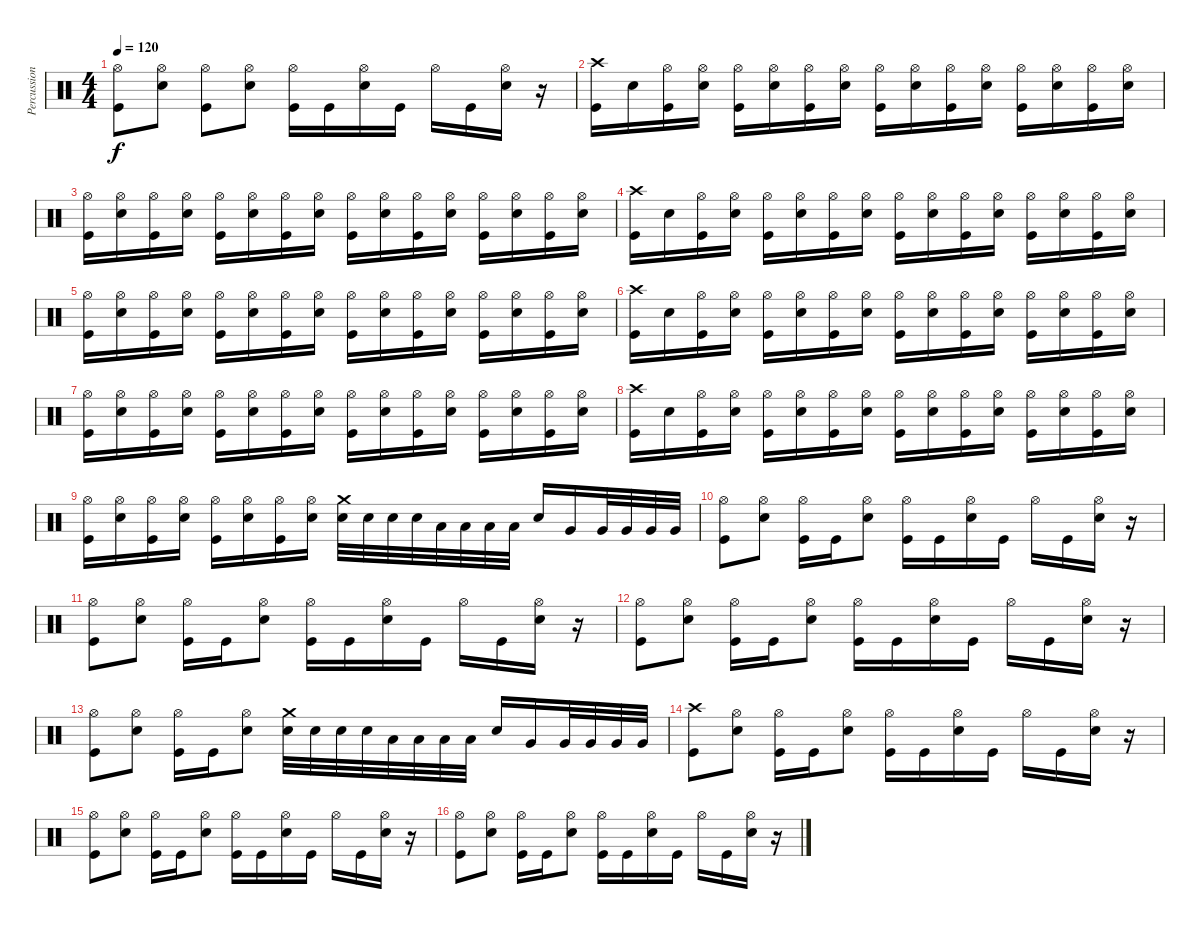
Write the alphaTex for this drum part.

\track ("Percussion" "Percussion") {instrument percussion}
\staff {score}
\articulation defaults
\ts (4 4)
\tempo 120
\clef neutral
\ks c
("Kick (hit)" "Hi-Hat (open)").8{dy f} ("Electric Snare (hit)" "Hi-Hat (open)").8 ("Kick (hit)" "Hi-Hat (open)").8 ("Electric Snare (hit)" "Hi-Hat (open)").8 ("Hi-Hat (open)" "Kick (hit)").16 "Kick (hit)".16 ("Hi-Hat (open)" "Electric Snare (hit)").16 "Kick (hit)".16 "Hi-Hat (open)".16 "Kick (hit)".16 ("Hi-Hat (open)" "Electric Snare (hit)").16 r.16 |
("Crash high (hit)" "Kick (hit)").16 "Electric Snare (hit)".16 ("Hi-Hat (open)" "Kick (hit)").16 ("Hi-Hat (open)" "Electric Snare (hit)").16 ("Hi-Hat (open)" "Kick (hit)").16 ("Hi-Hat (open)" "Electric Snare (hit)").16 ("Hi-Hat (open)" "Kick (hit)").16 ("Hi-Hat (open)" "Electric Snare (hit)").16 ("Hi-Hat (open)" "Kick (hit)").16 ("Hi-Hat (open)" "Electric Snare (hit)").16 ("Hi-Hat (open)" "Kick (hit)").16 ("Hi-Hat (open)" "Electric Snare (hit)").16 ("Hi-Hat (open)" "Kick (hit)").16 ("Hi-Hat (open)" "Electric Snare (hit)").16 ("Hi-Hat (open)" "Kick (hit)").16 ("Hi-Hat (open)" "Electric Snare (hit)").16 |
("Hi-Hat (open)" "Kick (hit)").16 ("Hi-Hat (open)" "Electric Snare (hit)").16 ("Hi-Hat (open)" "Kick (hit)").16 ("Hi-Hat (open)" "Electric Snare (hit)").16 ("Hi-Hat (open)" "Kick (hit)").16 ("Hi-Hat (open)" "Electric Snare (hit)").16 ("Hi-Hat (open)" "Kick (hit)").16 ("Hi-Hat (open)" "Electric Snare (hit)").16 ("Hi-Hat (open)" "Kick (hit)").16 ("Hi-Hat (open)" "Electric Snare (hit)").16 ("Hi-Hat (open)" "Kick (hit)").16 ("Hi-Hat (open)" "Electric Snare (hit)").16 ("Hi-Hat (open)" "Kick (hit)").16 ("Hi-Hat (open)" "Electric Snare (hit)").16 ("Hi-Hat (open)" "Kick (hit)").16 ("Hi-Hat (open)" "Electric Snare (hit)").16 |
("Crash high (hit)" "Kick (hit)").16 "Electric Snare (hit)".16 ("Hi-Hat (open)" "Kick (hit)").16 ("Hi-Hat (open)" "Electric Snare (hit)").16 ("Hi-Hat (open)" "Kick (hit)").16 ("Hi-Hat (open)" "Electric Snare (hit)").16 ("Hi-Hat (open)" "Kick (hit)").16 ("Hi-Hat (open)" "Electric Snare (hit)").16 ("Hi-Hat (open)" "Kick (hit)").16 ("Hi-Hat (open)" "Electric Snare (hit)").16 ("Hi-Hat (open)" "Kick (hit)").16 ("Hi-Hat (open)" "Electric Snare (hit)").16 ("Hi-Hat (open)" "Kick (hit)").16 ("Hi-Hat (open)" "Electric Snare (hit)").16 ("Hi-Hat (open)" "Kick (hit)").16 ("Hi-Hat (open)" "Electric Snare (hit)").16 |
("Hi-Hat (open)" "Kick (hit)").16 ("Hi-Hat (open)" "Electric Snare (hit)").16 ("Hi-Hat (open)" "Kick (hit)").16 ("Hi-Hat (open)" "Electric Snare (hit)").16 ("Hi-Hat (open)" "Kick (hit)").16 ("Hi-Hat (open)" "Electric Snare (hit)").16 ("Hi-Hat (open)" "Kick (hit)").16 ("Hi-Hat (open)" "Electric Snare (hit)").16 ("Hi-Hat (open)" "Kick (hit)").16 ("Hi-Hat (open)" "Electric Snare (hit)").16 ("Hi-Hat (open)" "Kick (hit)").16 ("Hi-Hat (open)" "Electric Snare (hit)").16 ("Hi-Hat (open)" "Kick (hit)").16 ("Hi-Hat (open)" "Electric Snare (hit)").16 ("Hi-Hat (open)" "Kick (hit)").16 ("Hi-Hat (open)" "Electric Snare (hit)").16 |
("Crash high (hit)" "Kick (hit)").16 "Electric Snare (hit)".16 ("Hi-Hat (open)" "Kick (hit)").16 ("Hi-Hat (open)" "Electric Snare (hit)").16 ("Hi-Hat (open)" "Kick (hit)").16 ("Hi-Hat (open)" "Electric Snare (hit)").16 ("Hi-Hat (open)" "Kick (hit)").16 ("Hi-Hat (open)" "Electric Snare (hit)").16 ("Hi-Hat (open)" "Kick (hit)").16 ("Hi-Hat (open)" "Electric Snare (hit)").16 ("Hi-Hat (open)" "Kick (hit)").16 ("Hi-Hat (open)" "Electric Snare (hit)").16 ("Hi-Hat (open)" "Kick (hit)").16 ("Hi-Hat (open)" "Electric Snare (hit)").16 ("Hi-Hat (open)" "Kick (hit)").16 ("Hi-Hat (open)" "Electric Snare (hit)").16 |
("Hi-Hat (open)" "Kick (hit)").16 ("Hi-Hat (open)" "Electric Snare (hit)").16 ("Hi-Hat (open)" "Kick (hit)").16 ("Hi-Hat (open)" "Electric Snare (hit)").16 ("Hi-Hat (open)" "Kick (hit)").16 ("Hi-Hat (open)" "Electric Snare (hit)").16 ("Hi-Hat (open)" "Kick (hit)").16 ("Hi-Hat (open)" "Electric Snare (hit)").16 ("Hi-Hat (open)" "Kick (hit)").16 ("Hi-Hat (open)" "Electric Snare (hit)").16 ("Hi-Hat (open)" "Kick (hit)").16 ("Hi-Hat (open)" "Electric Snare (hit)").16 ("Hi-Hat (open)" "Kick (hit)").16 ("Hi-Hat (open)" "Electric Snare (hit)").16 ("Hi-Hat (open)" "Kick (hit)").16 ("Hi-Hat (open)" "Electric Snare (hit)").16 |
("Crash high (hit)" "Kick (hit)").16 "Electric Snare (hit)".16 ("Hi-Hat (open)" "Kick (hit)").16 ("Hi-Hat (open)" "Electric Snare (hit)").16 ("Hi-Hat (open)" "Kick (hit)").16 ("Hi-Hat (open)" "Electric Snare (hit)").16 ("Hi-Hat (open)" "Kick (hit)").16 ("Hi-Hat (open)" "Electric Snare (hit)").16 ("Hi-Hat (open)" "Kick (hit)").16 ("Hi-Hat (open)" "Electric Snare (hit)").16 ("Hi-Hat (open)" "Kick (hit)").16 ("Hi-Hat (open)" "Electric Snare (hit)").16 ("Hi-Hat (open)" "Kick (hit)").16 ("Hi-Hat (open)" "Electric Snare (hit)").16 ("Hi-Hat (open)" "Kick (hit)").16 ("Hi-Hat (open)" "Electric Snare (hit)").16 |
("Hi-Hat (open)" "Kick (hit)").16 ("Hi-Hat (open)" "Electric Snare (hit)").16 ("Hi-Hat (open)" "Kick (hit)").16 ("Hi-Hat (open)" "Electric Snare (hit)").16 ("Hi-Hat (open)" "Kick (hit)").16 ("Hi-Hat (open)" "Electric Snare (hit)").16 ("Hi-Hat (open)" "Kick (hit)").16 ("Hi-Hat (open)" "Electric Snare (hit)").16 ("Crash medium (hit)" "Electric Snare (hit)").32 "Electric Snare (hit)".32 "Electric Snare (hit)".32 "Electric Snare (hit)".32 "Low Tom (hit)".32 "Low Tom (hit)".32 "Low Tom (hit)".32 "Low Tom (hit)".32 "Electric Snare (hit)".16 "Very Low Tom (hit)".16 "Very Low Tom (hit)".32 "Very Low Tom (hit)".32 "Very Low Tom (hit)".32 "Very Low Tom (hit)".32 |
("Kick (hit)" "Hi-Hat (open)").8 ("Electric Snare (hit)" "Hi-Hat (open)").8 ("Hi-Hat (open)" "Kick (hit)").16 "Kick (hit)".16 ("Hi-Hat (open)" "Electric Snare (hit)").8 ("Hi-Hat (open)" "Kick (hit)").16 "Kick (hit)".16 ("Hi-Hat (open)" "Electric Snare (hit)").16 "Kick (hit)".16 "Hi-Hat (open)".16 "Kick (hit)".16 ("Hi-Hat (open)" "Electric Snare (hit)").16 r.16 |
("Kick (hit)" "Hi-Hat (open)").8 ("Electric Snare (hit)" "Hi-Hat (open)").8 ("Hi-Hat (open)" "Kick (hit)").16 "Kick (hit)".16 ("Hi-Hat (open)" "Electric Snare (hit)").8 ("Hi-Hat (open)" "Kick (hit)").16 "Kick (hit)".16 ("Hi-Hat (open)" "Electric Snare (hit)").16 "Kick (hit)".16 "Hi-Hat (open)".16 "Kick (hit)".16 ("Hi-Hat (open)" "Electric Snare (hit)").16 r.16 |
("Kick (hit)" "Hi-Hat (open)").8 ("Electric Snare (hit)" "Hi-Hat (open)").8 ("Hi-Hat (open)" "Kick (hit)").16 "Kick (hit)".16 ("Hi-Hat (open)" "Electric Snare (hit)").8 ("Hi-Hat (open)" "Kick (hit)").16 "Kick (hit)".16 ("Hi-Hat (open)" "Electric Snare (hit)").16 "Kick (hit)".16 "Hi-Hat (open)".16 "Kick (hit)".16 ("Hi-Hat (open)" "Electric Snare (hit)").16 r.16 |
("Kick (hit)" "Hi-Hat (open)").8 ("Electric Snare (hit)" "Hi-Hat (open)").8 ("Hi-Hat (open)" "Kick (hit)").16 "Kick (hit)".16 ("Hi-Hat (open)" "Electric Snare (hit)").8 ("Crash medium (hit)" "Electric Snare (hit)").32 "Electric Snare (hit)".32 "Electric Snare (hit)".32 "Electric Snare (hit)".32 "Low Tom (hit)".32 "Low Tom (hit)".32 "Low Tom (hit)".32 "Low Tom (hit)".32 "Electric Snare (hit)".16 "Very Low Tom (hit)".16 "Very Low Tom (hit)".32 "Very Low Tom (hit)".32 "Very Low Tom (hit)".32 "Very Low Tom (hit)".32 |
("Kick (hit)" "Crash high (hit)").8 ("Electric Snare (hit)" "Hi-Hat (open)").8 ("Hi-Hat (open)" "Kick (hit)").16 "Kick (hit)".16 ("Hi-Hat (open)" "Electric Snare (hit)").8 ("Hi-Hat (open)" "Kick (hit)").16 "Kick (hit)".16 ("Hi-Hat (open)" "Electric Snare (hit)").16 "Kick (hit)".16 "Hi-Hat (open)".16 "Kick (hit)".16 ("Hi-Hat (open)" "Electric Snare (hit)").16 r.16 |
("Kick (hit)" "Hi-Hat (open)").8 ("Electric Snare (hit)" "Hi-Hat (open)").8 ("Hi-Hat (open)" "Kick (hit)").16 "Kick (hit)".16 ("Hi-Hat (open)" "Electric Snare (hit)").8 ("Hi-Hat (open)" "Kick (hit)").16 "Kick (hit)".16 ("Hi-Hat (open)" "Electric Snare (hit)").16 "Kick (hit)".16 "Hi-Hat (open)".16 "Kick (hit)".16 ("Hi-Hat (open)" "Electric Snare (hit)").16 r.16 |
("Kick (hit)" "Hi-Hat (open)").8 ("Electric Snare (hit)" "Hi-Hat (open)").8 ("Hi-Hat (open)" "Kick (hit)").16 "Kick (hit)".16 ("Hi-Hat (open)" "Electric Snare (hit)").8 ("Hi-Hat (open)" "Kick (hit)").16 "Kick (hit)".16 ("Hi-Hat (open)" "Electric Snare (hit)").16 "Kick (hit)".16 "Hi-Hat (open)".16 "Kick (hit)".16 ("Hi-Hat (open)" "Electric Snare (hit)").16 r.16
